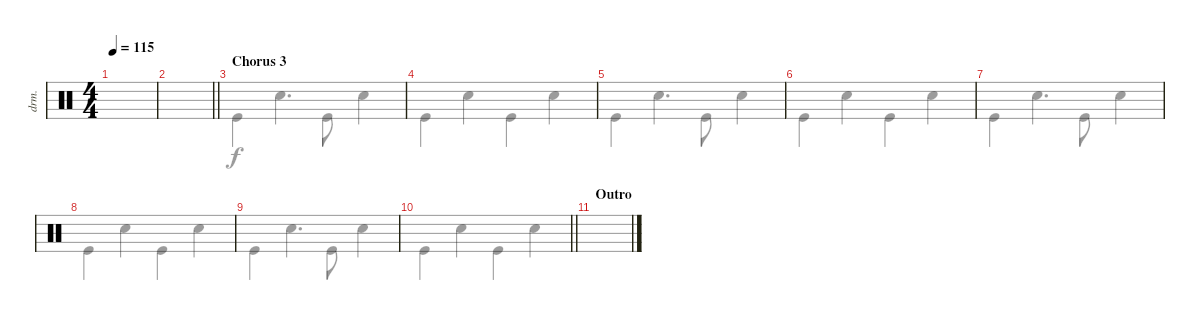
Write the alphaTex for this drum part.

\defaultSystemsLayout 4
\bracketExtendMode groupsimilarinstruments
\otherSystemsTrackNameOrientation horizontal
\chordDiagramsInScore
\track ("Drumkit" "drm.") {instrument percussion}
\staff {score}
\articulation defaults
\voice
\ts (4 4)
\tempo 115
\clef neutral
\ks c
|
\barLineRight lightlight
|
\section ("" "Chorus 3")
|
|
|
|
|
|
|
\barLineRight lightlight
|
\section ("" "Outro")
|
|
|
|
|
\voice
\clef neutral
\ks c
|
\barLineRight lightlight
|
"Kick (hit)".4 "Snare (hit) 2".4{d} "Kick (hit)".8 "Snare (hit) 2".4 |
"Kick (hit)".4 "Snare (hit) 2".4 "Kick (hit)".4 "Snare (hit) 2".4 |
"Kick (hit)".4 "Snare (hit) 2".4{d} "Kick (hit)".8 "Snare (hit) 2".4 |
"Kick (hit)".4 "Snare (hit) 2".4 "Kick (hit)".4 "Snare (hit) 2".4 |
"Kick (hit)".4 "Snare (hit) 2".4{d} "Kick (hit)".8 "Snare (hit) 2".4 |
"Kick (hit)".4 "Snare (hit) 2".4 "Kick (hit)".4 "Snare (hit) 2".4 |
"Kick (hit)".4 "Snare (hit) 2".4{d} "Kick (hit)".8 "Snare (hit) 2".4 |
\barLineRight lightlight "Kick (hit)".4 "Snare (hit) 2".4 "Kick (hit)".4 "Snare (hit) 2".4
|
|
|
|
|
|
